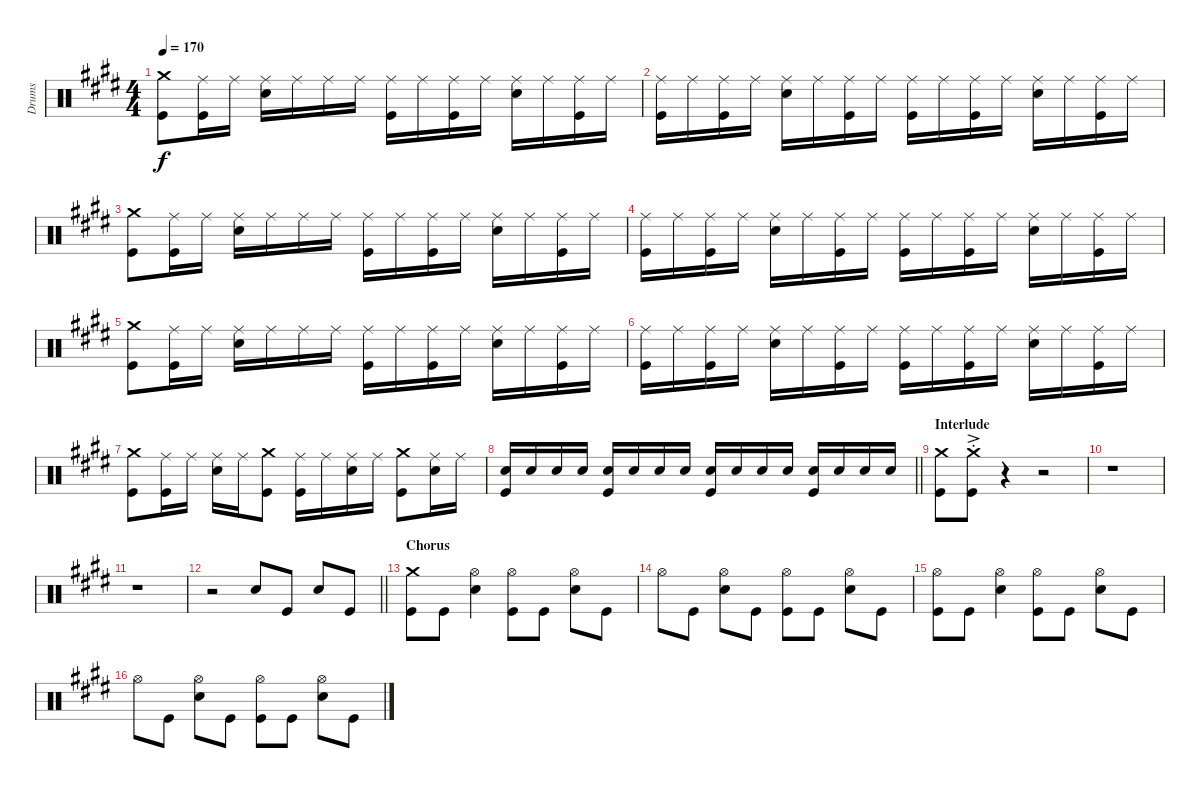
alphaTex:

\track ("Drums" "Drums") {instrument percussion}
\staff {score}
\articulation defaults
\ts (4 4)
\tempo 170
\clef neutral
\ks e
("Kick (hit)" "Crash medium (hit)").8{dy f} ("Ride (middle)" "Kick (hit)").16 "Ride (middle)".16 ("Ride (middle)" "Snare (hit) 2").16 "Ride (middle)".16 "Ride (middle)".16 "Ride (middle)".16 ("Ride (middle)" "Kick (hit)").16 "Ride (middle)".16 ("Ride (middle)" "Kick (hit)").16 "Ride (middle)".16 ("Ride (middle)" "Snare (hit) 2").16 "Ride (middle)".16 ("Ride (middle)" "Kick (hit)").16 "Ride (middle)".16 |
("Ride (middle)" "Kick (hit)").16 "Ride (middle)".16 ("Ride (middle)" "Kick (hit)").16 "Ride (middle)".16 ("Ride (middle)" "Snare (hit) 2").16 "Ride (middle)".16 ("Ride (middle)" "Kick (hit)").16 "Ride (middle)".16 ("Ride (middle)" "Kick (hit)").16 "Ride (middle)".16 ("Ride (middle)" "Kick (hit)").16 "Ride (middle)".16 ("Ride (middle)" "Snare (hit) 2").16 "Ride (middle)".16 ("Ride (middle)" "Kick (hit)").16 "Ride (middle)".16 |
("Kick (hit)" "Crash medium (hit)").8 ("Ride (middle)" "Kick (hit)").16 "Ride (middle)".16 ("Ride (middle)" "Snare (hit) 2").16 "Ride (middle)".16 "Ride (middle)".16 "Ride (middle)".16 ("Ride (middle)" "Kick (hit)").16 "Ride (middle)".16 ("Ride (middle)" "Kick (hit)").16 "Ride (middle)".16 ("Ride (middle)" "Snare (hit) 2").16 "Ride (middle)".16 ("Ride (middle)" "Kick (hit)").16 "Ride (middle)".16 |
("Ride (middle)" "Kick (hit)").16 "Ride (middle)".16 ("Ride (middle)" "Kick (hit)").16 "Ride (middle)".16 ("Ride (middle)" "Snare (hit) 2").16 "Ride (middle)".16 ("Ride (middle)" "Kick (hit)").16 "Ride (middle)".16 ("Ride (middle)" "Kick (hit)").16 "Ride (middle)".16 ("Ride (middle)" "Kick (hit)").16 "Ride (middle)".16 ("Ride (middle)" "Snare (hit) 2").16 "Ride (middle)".16 ("Ride (middle)" "Kick (hit)").16 "Ride (middle)".16 |
("Kick (hit)" "Crash medium (hit)").8 ("Ride (middle)" "Kick (hit)").16 "Ride (middle)".16 ("Ride (middle)" "Snare (hit) 2").16 "Ride (middle)".16 "Ride (middle)".16 "Ride (middle)".16 ("Ride (middle)" "Kick (hit)").16 "Ride (middle)".16 ("Ride (middle)" "Kick (hit)").16 "Ride (middle)".16 ("Ride (middle)" "Snare (hit) 2").16 "Ride (middle)".16 ("Ride (middle)" "Kick (hit)").16 "Ride (middle)".16 |
("Ride (middle)" "Kick (hit)").16 "Ride (middle)".16 ("Ride (middle)" "Kick (hit)").16 "Ride (middle)".16 ("Ride (middle)" "Snare (hit) 2").16 "Ride (middle)".16 ("Ride (middle)" "Kick (hit)").16 "Ride (middle)".16 ("Ride (middle)" "Kick (hit)").16 "Ride (middle)".16 ("Ride (middle)" "Kick (hit)").16 "Ride (middle)".16 ("Ride (middle)" "Snare (hit) 2").16 "Ride (middle)".16 ("Ride (middle)" "Kick (hit)").16 "Ride (middle)".16 |
("Kick (hit)" "Crash medium (hit)").8 ("Ride (middle)" "Kick (hit)").16 "Ride (middle)".16 ("Ride (middle)" "Snare (hit) 2").16 "Ride (middle)".16 ("Kick (hit)" "Crash medium (hit)").8 ("Ride (middle)" "Kick (hit)").16 "Ride (middle)".16 ("Ride (middle)" "Snare (hit) 2").16 "Ride (middle)".16 ("Kick (hit)" "Crash medium (hit)").8 ("Ride (middle)" "Snare (hit) 2").16 "Ride (middle)".16 |
\barLineRight lightlight
("Snare (hit) 2" "Kick (hit)").16 "Snare (hit) 2".16 "Snare (hit) 2".16 "Snare (hit) 2".16 ("Snare (hit) 2" "Kick (hit)").16 "Snare (hit) 2".16 "Snare (hit) 2".16 "Snare (hit) 2".16 ("Snare (hit) 2" "Kick (hit)").16 "Snare (hit) 2".16 "Snare (hit) 2".16 "Snare (hit) 2".16 ("Snare (hit) 2" "Kick (hit)").16 "Snare (hit) 2".16 "Snare (hit) 2".16 "Snare (hit) 2".16 |
\section ("" "Interlude")
("Kick (hit)" "Crash medium (hit)").8 ("Kick (hit)"{ac st} "Crash medium (hit)"{ac st}).8 r.4 r.2 |
r.1 |
r.1 |
\barLineRight lightlight
r.2 "Snare (hit) 2".8 "Kick (hit)".8 "Snare (hit) 2".8 "Kick (hit)".8 |
\section ("" "Chorus")
("Kick (hit)" "Crash medium (hit)").8 "Kick (hit)".8 ("Snare (hit) 2" "Hi-Hat (open)").4 ("Kick (hit)" "Hi-Hat (open)").8 "Kick (hit)".8 ("Snare (hit) 2" "Hi-Hat (open)").8 "Kick (hit)".8 |
"Hi-Hat (open)".8 "Kick (hit)".8 ("Snare (hit) 2" "Hi-Hat (open)").8 "Kick (hit)".8 ("Hi-Hat (open)" "Kick (hit)").8 "Kick (hit)".8 ("Snare (hit) 2" "Hi-Hat (open)").8 "Kick (hit)".8 |
("Kick (hit)" "Hi-Hat (open)").8 "Kick (hit)".8 ("Snare (hit) 2" "Hi-Hat (open)").4 ("Kick (hit)" "Hi-Hat (open)").8 "Kick (hit)".8 ("Snare (hit) 2" "Hi-Hat (open)").8 "Kick (hit)".8 |
"Hi-Hat (open)".8 "Kick (hit)".8 ("Snare (hit) 2" "Hi-Hat (open)").8 "Kick (hit)".8 ("Hi-Hat (open)" "Kick (hit)").8 "Kick (hit)".8 ("Snare (hit) 2" "Hi-Hat (open)").8 "Kick (hit)".8
